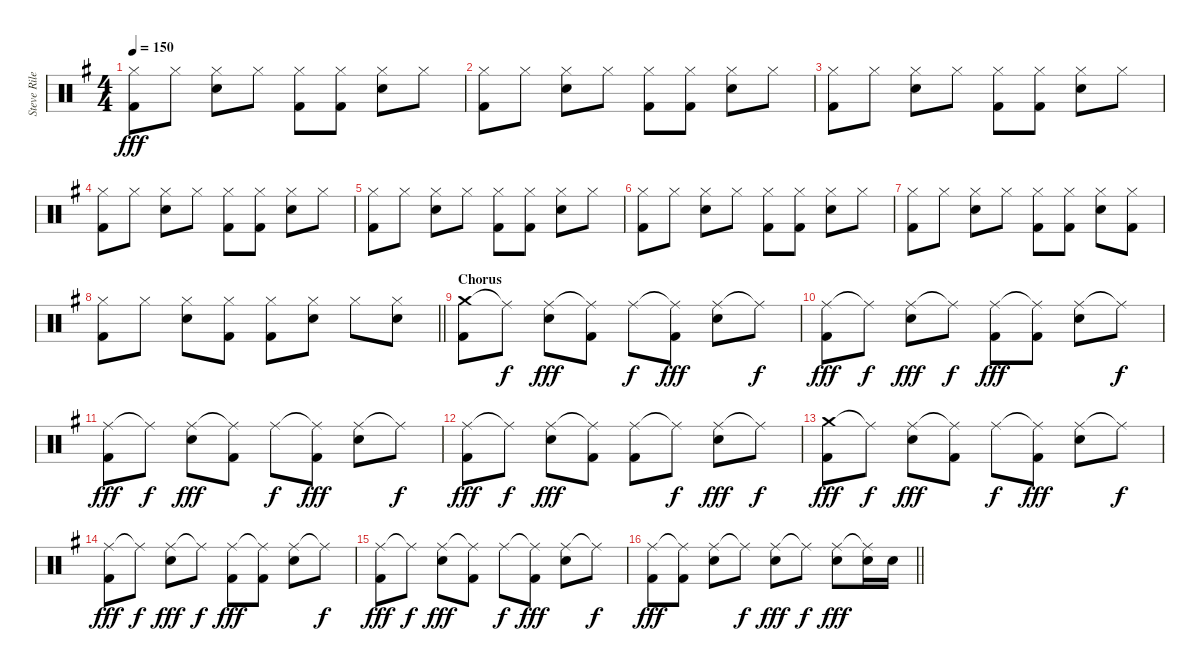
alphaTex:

\track ("Steve Riley - Drums" "Steve Rile") {instrument percussion}
\staff {score}
\articulation defaults
\ts (4 4)
\tempo 150
\clef neutral
\ks g
("Hi-Hat (closed)" "Kick (hit) 2").8{dy fff} "Hi-Hat (closed)".8 ("Hi-Hat (closed)" "Electric Snare (hit)").8 "Hi-Hat (closed)".8 ("Hi-Hat (closed)" "Kick (hit) 2").8 ("Hi-Hat (closed)" "Kick (hit) 2").8 ("Hi-Hat (closed)" "Electric Snare (hit)").8 "Hi-Hat (closed)".8 |
("Hi-Hat (closed)" "Kick (hit) 2").8 "Hi-Hat (closed)".8 ("Hi-Hat (closed)" "Electric Snare (hit)").8 "Hi-Hat (closed)".8 ("Hi-Hat (closed)" "Kick (hit) 2").8 ("Hi-Hat (closed)" "Kick (hit) 2").8 ("Hi-Hat (closed)" "Electric Snare (hit)").8 "Hi-Hat (closed)".8 |
("Hi-Hat (closed)" "Kick (hit) 2").8 "Hi-Hat (closed)".8 ("Hi-Hat (closed)" "Electric Snare (hit)").8 "Hi-Hat (closed)".8 ("Hi-Hat (closed)" "Kick (hit) 2").8 ("Hi-Hat (closed)" "Kick (hit) 2").8 ("Hi-Hat (closed)" "Electric Snare (hit)").8 "Hi-Hat (closed)".8 |
("Hi-Hat (closed)" "Kick (hit) 2").8 "Hi-Hat (closed)".8 ("Hi-Hat (closed)" "Electric Snare (hit)").8 "Hi-Hat (closed)".8 ("Hi-Hat (closed)" "Kick (hit) 2").8 ("Hi-Hat (closed)" "Kick (hit) 2").8 ("Hi-Hat (closed)" "Electric Snare (hit)").8 "Hi-Hat (closed)".8 |
("Hi-Hat (closed)" "Kick (hit) 2").8 "Hi-Hat (closed)".8 ("Hi-Hat (closed)" "Electric Snare (hit)").8 "Hi-Hat (closed)".8 ("Hi-Hat (closed)" "Kick (hit) 2").8 ("Hi-Hat (closed)" "Kick (hit) 2").8 ("Hi-Hat (closed)" "Electric Snare (hit)").8 "Hi-Hat (closed)".8 |
("Hi-Hat (closed)" "Kick (hit) 2").8 "Hi-Hat (closed)".8 ("Hi-Hat (closed)" "Electric Snare (hit)").8 "Hi-Hat (closed)".8 ("Hi-Hat (closed)" "Kick (hit) 2").8 ("Hi-Hat (closed)" "Kick (hit) 2").8 ("Hi-Hat (closed)" "Electric Snare (hit)").8 "Hi-Hat (closed)".8 |
("Hi-Hat (closed)" "Kick (hit) 2").8 "Hi-Hat (closed)".8 ("Hi-Hat (closed)" "Electric Snare (hit)").8 "Hi-Hat (closed)".8 ("Hi-Hat (closed)" "Kick (hit) 2").8 ("Hi-Hat (closed)" "Kick (hit) 2").8 ("Hi-Hat (closed)" "Electric Snare (hit)").8 ("Hi-Hat (closed)" "Kick (hit) 2").8 |
\barLineRight lightlight
("Hi-Hat (closed)" "Kick (hit) 2").8 "Hi-Hat (closed)".8 ("Hi-Hat (closed)" "Electric Snare (hit)").8 ("Hi-Hat (closed)" "Kick (hit) 2").8 ("Hi-Hat (closed)" "Kick (hit) 2").8 ("Hi-Hat (closed)" "Electric Snare (hit)").8 "Hi-Hat (closed)".8 ("Hi-Hat (closed)" "Electric Snare (hit)").8 |
\section ("" "Chorus")
("Crash medium (hit)" "Kick (hit) 2").8 "Ride (middle)"{t}.8{dy f} ("Ride (middle)" "Electric Snare (hit)").8{dy fff} ("Ride (middle)"{t} "Kick (hit) 2").8 "Ride (middle)".8{dy f} ("Ride (middle)"{t} "Kick (hit) 2").8{dy fff} ("Ride (middle)" "Electric Snare (hit)").8 "Ride (middle)"{t}.8{dy f} |
("Ride (middle)" "Kick (hit) 2").8{dy fff} "Ride (middle)"{t}.8{dy f} ("Ride (middle)" "Electric Snare (hit)").8{dy fff} "Ride (middle)"{t}.8{dy f} ("Ride (middle)" "Kick (hit) 2").8{dy fff} ("Ride (middle)"{t} "Kick (hit) 2").8 ("Ride (middle)" "Electric Snare (hit)").8 "Ride (middle)"{t}.8{dy f} |
("Ride (middle)" "Kick (hit) 2").8{dy fff} "Ride (middle)"{t}.8{dy f} ("Ride (middle)" "Electric Snare (hit)").8{dy fff} ("Ride (middle)"{t} "Kick (hit) 2").8 "Ride (middle)".8{dy f} ("Ride (middle)"{t} "Kick (hit) 2").8{dy fff} ("Ride (middle)" "Electric Snare (hit)").8 "Ride (middle)"{t}.8{dy f} |
("Ride (middle)" "Kick (hit) 2").8{dy fff} "Ride (middle)"{t}.8{dy f} ("Ride (middle)" "Electric Snare (hit)").8{dy fff} ("Ride (middle)"{t} "Kick (hit) 2").8 ("Ride (middle)" "Kick (hit) 2").8 "Ride (middle)"{t}.8{dy f} ("Ride (middle)" "Electric Snare (hit)").8{dy fff} "Ride (middle)"{t}.8{dy f} |
("Crash medium (hit)" "Kick (hit) 2").8{dy fff} "Ride (middle)"{t}.8{dy f} ("Ride (middle)" "Electric Snare (hit)").8{dy fff} ("Ride (middle)"{t} "Kick (hit) 2").8 "Ride (middle)".8{dy f} ("Ride (middle)"{t} "Kick (hit) 2").8{dy fff} ("Ride (middle)" "Electric Snare (hit)").8 "Ride (middle)"{t}.8{dy f} |
("Ride (middle)" "Kick (hit) 2").8{dy fff} "Ride (middle)"{t}.8{dy f} ("Ride (middle)" "Electric Snare (hit)").8{dy fff} "Ride (middle)"{t}.8{dy f} ("Ride (middle)" "Kick (hit) 2").8{dy fff} ("Ride (middle)"{t} "Kick (hit) 2").8 ("Ride (middle)" "Electric Snare (hit)").8 "Ride (middle)"{t}.8{dy f} |
("Ride (middle)" "Kick (hit) 2").8{dy fff} "Ride (middle)"{t}.8{dy f} ("Ride (middle)" "Electric Snare (hit)").8{dy fff} ("Ride (middle)"{t} "Kick (hit) 2").8 "Ride (middle)".8{dy f} ("Ride (middle)"{t} "Kick (hit) 2").8{dy fff} ("Ride (middle)" "Electric Snare (hit)").8 "Ride (middle)"{t}.8{dy f} |
\barLineRight lightlight
("Ride (middle)" "Kick (hit) 2").8{dy fff} ("Ride (middle)"{t} "Kick (hit) 2").8 ("Ride (middle)" "Electric Snare (hit)").8 "Ride (middle)"{t}.8{dy f} ("Ride (middle)" "Electric Snare (hit)").8{dy fff} "Ride (middle)"{t}.8{dy f} ("Ride (middle)" "Electric Snare (hit)").8{dy fff} ("Ride (middle)"{t} "Electric Snare (hit)").16 "Electric Snare (hit)".16
